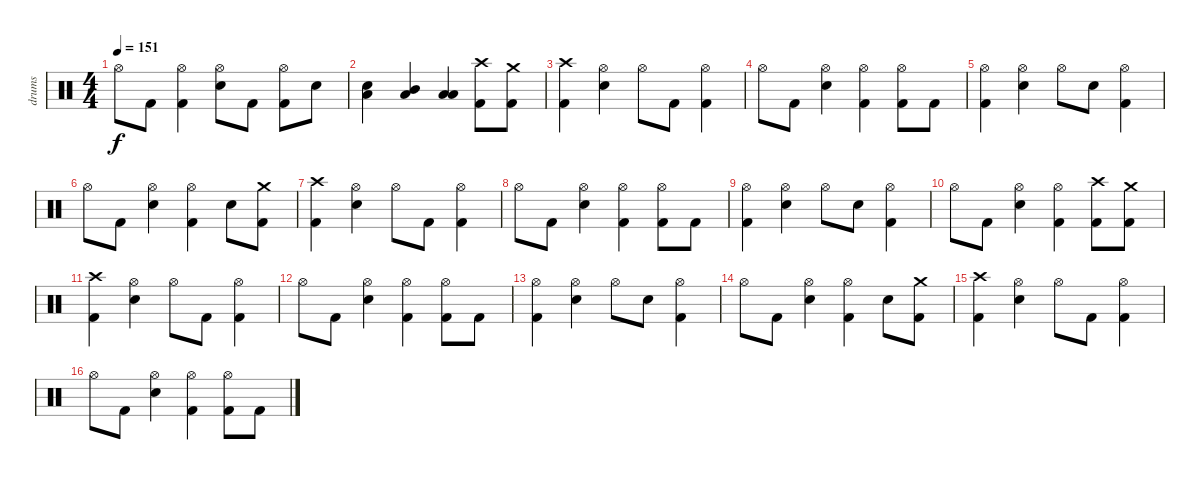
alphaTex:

\track ("drums" "drums") {instrument percussion}
\staff {score}
\articulation defaults
\ts (4 4)
\tempo 151
\clef neutral
\ks c "Hi-Hat (open)".8{dy f} "Kick (hit) 2".8
("Hi-Hat (open)" "Kick (hit) 2").4 ("Hi-Hat (open)" "Electric Snare (hit)").8 "Kick (hit) 2".8 ("Hi-Hat (open)" "Kick (hit) 2").8 "Electric Snare (hit)".8 |
("Low Floor Tom (hit)" "Electric Snare (hit)").4 ("Low Floor Tom (hit)" "Mid Tom (hit)").4 ("Low Floor Tom (hit)" "Low Tom (hit)").4 ("Crash high (hit)" "Kick (hit) 2").8 ("Crash medium (hit)" "Kick (hit) 2").8 |
("Crash high (hit)" "Kick (hit) 2").4 ("Hi-Hat (open)" "Electric Snare (hit)").4 "Hi-Hat (open)".8 "Kick (hit) 2".8 ("Hi-Hat (open)" "Kick (hit) 2").4 |
"Hi-Hat (open)".8 "Kick (hit) 2".8 ("Hi-Hat (open)" "Electric Snare (hit)").4 ("Hi-Hat (open)" "Kick (hit) 2").4 ("Hi-Hat (open)" "Kick (hit) 2").8 "Kick (hit) 2".8 |
("Hi-Hat (open)" "Kick (hit) 2").4 ("Hi-Hat (open)" "Electric Snare (hit)").4 "Hi-Hat (open)".8 "Electric Snare (hit)".8 ("Hi-Hat (open)" "Kick (hit) 2").4 |
"Hi-Hat (open)".8 "Kick (hit) 2".8 ("Hi-Hat (open)" "Electric Snare (hit)").4 ("Hi-Hat (open)" "Kick (hit) 2").4 "Electric Snare (hit)".8 ("Crash medium (hit)" "Kick (hit) 2").8 |
("Crash high (hit)" "Kick (hit) 2").4 ("Hi-Hat (open)" "Electric Snare (hit)").4 "Hi-Hat (open)".8 "Kick (hit) 2".8 ("Hi-Hat (open)" "Kick (hit) 2").4 |
"Hi-Hat (open)".8 "Kick (hit) 2".8 ("Hi-Hat (open)" "Electric Snare (hit)").4 ("Hi-Hat (open)" "Kick (hit) 2").4 ("Hi-Hat (open)" "Kick (hit) 2").8 "Kick (hit) 2".8 |
("Hi-Hat (open)" "Kick (hit) 2").4 ("Hi-Hat (open)" "Electric Snare (hit)").4 "Hi-Hat (open)".8 "Electric Snare (hit)".8 ("Hi-Hat (open)" "Kick (hit) 2").4 |
"Hi-Hat (open)".8 "Kick (hit) 2".8 ("Hi-Hat (open)" "Electric Snare (hit)").4 ("Hi-Hat (open)" "Kick (hit) 2").4 ("Crash high (hit)" "Kick (hit) 2").8 ("Crash medium (hit)" "Kick (hit) 2").8 |
("Crash high (hit)" "Kick (hit) 2").4 ("Hi-Hat (open)" "Electric Snare (hit)").4 "Hi-Hat (open)".8 "Kick (hit) 2".8 ("Hi-Hat (open)" "Kick (hit) 2").4 |
"Hi-Hat (open)".8 "Kick (hit) 2".8 ("Hi-Hat (open)" "Electric Snare (hit)").4 ("Hi-Hat (open)" "Kick (hit) 2").4 ("Hi-Hat (open)" "Kick (hit) 2").8 "Kick (hit) 2".8 |
("Hi-Hat (open)" "Kick (hit) 2").4 ("Hi-Hat (open)" "Electric Snare (hit)").4 "Hi-Hat (open)".8 "Electric Snare (hit)".8 ("Hi-Hat (open)" "Kick (hit) 2").4 |
"Hi-Hat (open)".8 "Kick (hit) 2".8 ("Hi-Hat (open)" "Electric Snare (hit)").4 ("Hi-Hat (open)" "Kick (hit) 2").4 "Electric Snare (hit)".8 ("Crash medium (hit)" "Kick (hit) 2").8 |
("Crash high (hit)" "Kick (hit) 2").4 ("Hi-Hat (open)" "Electric Snare (hit)").4 "Hi-Hat (open)".8 "Kick (hit) 2".8 ("Hi-Hat (open)" "Kick (hit) 2").4 |
"Hi-Hat (open)".8 "Kick (hit) 2".8 ("Hi-Hat (open)" "Electric Snare (hit)").4 ("Hi-Hat (open)" "Kick (hit) 2").4 ("Hi-Hat (open)" "Kick (hit) 2").8 "Kick (hit) 2".8
